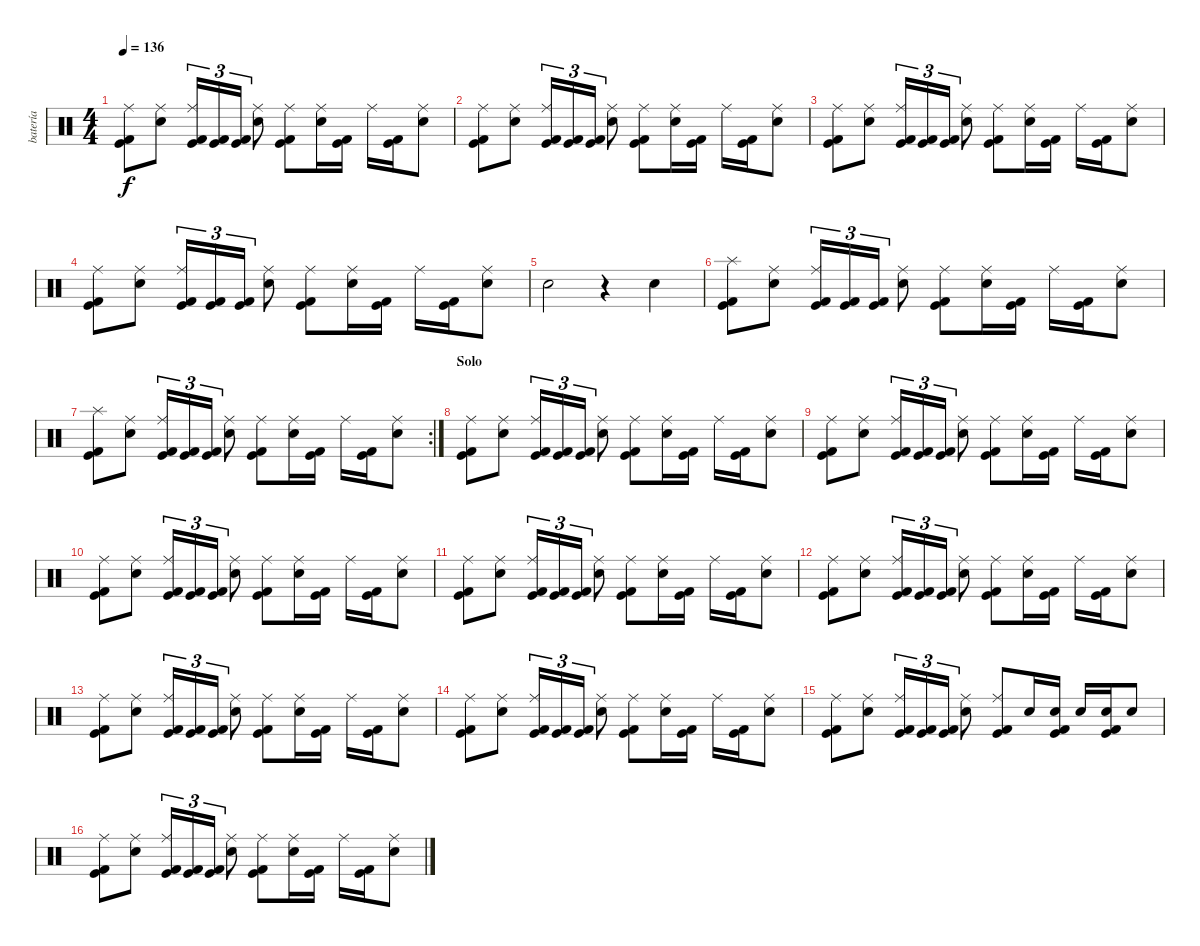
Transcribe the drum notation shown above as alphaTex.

\track ("batería" "batería") {instrument percussion}
\staff {score}
\articulation defaults
\ts (4 4)
\tempo 136
\clef neutral
\ks c
("Kick (hit) 2" "Ride (middle)" "Kick (hit)").8{dy f} ("Snare (hit) 2" "Ride (middle)").8 ("Kick (hit) 2" "Ride (middle)" "Kick (hit)").16{tu (3 2)} ("Kick (hit) 2" "Kick (hit)").16{tu (3 2)} ("Kick (hit) 2" "Kick (hit)").16{tu (3 2)} ("Snare (hit) 2" "Ride (middle)").8 ("Kick (hit) 2" "Ride (middle)" "Kick (hit)").8 ("Snare (hit) 2" "Ride (middle)").16 ("Kick (hit) 2" "Kick (hit)").16 "Ride (middle)".16 ("Kick (hit) 2" "Kick (hit)").16 ("Snare (hit) 2" "Ride (middle)").8 |
("Kick (hit) 2" "Ride (middle)" "Kick (hit)").8 ("Snare (hit) 2" "Ride (middle)").8 ("Kick (hit) 2" "Ride (middle)" "Kick (hit)").16{tu (3 2)} ("Kick (hit) 2" "Kick (hit)").16{tu (3 2)} ("Kick (hit) 2" "Kick (hit)").16{tu (3 2)} ("Snare (hit) 2" "Ride (middle)").8 ("Kick (hit) 2" "Ride (middle)" "Kick (hit)").8 ("Snare (hit) 2" "Ride (middle)").16 ("Kick (hit) 2" "Kick (hit)").16 "Ride (middle)".16 ("Kick (hit) 2" "Kick (hit)").16 ("Snare (hit) 2" "Ride (middle)").8 |
("Kick (hit) 2" "Ride (middle)" "Kick (hit)").8 ("Snare (hit) 2" "Ride (middle)").8 ("Kick (hit) 2" "Ride (middle)" "Kick (hit)").16{tu (3 2)} ("Kick (hit) 2" "Kick (hit)").16{tu (3 2)} ("Kick (hit) 2" "Kick (hit)").16{tu (3 2)} ("Snare (hit) 2" "Ride (middle)").8 ("Kick (hit) 2" "Ride (middle)" "Kick (hit)").8 ("Snare (hit) 2" "Ride (middle)").16 ("Kick (hit) 2" "Kick (hit)").16 "Ride (middle)".16 ("Kick (hit) 2" "Kick (hit)").16 ("Snare (hit) 2" "Ride (middle)").8 |
("Kick (hit) 2" "Ride (middle)" "Kick (hit)").8 ("Snare (hit) 2" "Ride (middle)").8 ("Kick (hit) 2" "Ride (middle)" "Kick (hit)").16{tu (3 2)} ("Kick (hit) 2" "Kick (hit)").16{tu (3 2)} ("Kick (hit) 2" "Kick (hit)").16{tu (3 2)} ("Snare (hit) 2" "Ride (middle)").8 ("Kick (hit) 2" "Ride (middle)" "Kick (hit)").8 ("Snare (hit) 2" "Ride (middle)").16 ("Kick (hit) 2" "Kick (hit)").16 "Ride (middle)".16 ("Kick (hit) 2" "Kick (hit)").16 ("Snare (hit) 2" "Ride (middle)").8 |
"Snare (hit) 2".2 r.4 "Snare (hit) 2".4 |
("Kick (hit) 2" "Splash (hit)" "Kick (hit)").8 ("Snare (hit) 2" "Ride (middle)").8 ("Kick (hit) 2" "Ride (middle)" "Kick (hit)").16{tu (3 2)} ("Kick (hit) 2" "Kick (hit)").16{tu (3 2)} ("Kick (hit) 2" "Kick (hit)").16{tu (3 2)} ("Snare (hit) 2" "Ride (middle)").8 ("Kick (hit) 2" "Ride (middle)" "Kick (hit)").8 ("Snare (hit) 2" "Ride (middle)").16 ("Kick (hit) 2" "Kick (hit)").16 "Ride (middle)".16 ("Kick (hit) 2" "Kick (hit)").16 ("Snare (hit) 2" "Ride (middle)").8 |
\rc 2
("Kick (hit) 2" "Splash (hit)" "Kick (hit)").8 ("Snare (hit) 2" "Ride (middle)").8 ("Kick (hit) 2" "Ride (middle)" "Kick (hit)").16{tu (3 2)} ("Kick (hit) 2" "Kick (hit)").16{tu (3 2)} ("Kick (hit) 2" "Kick (hit)").16{tu (3 2)} ("Snare (hit) 2" "Ride (middle)").8 ("Kick (hit) 2" "Ride (middle)" "Kick (hit)").8 ("Snare (hit) 2" "Ride (middle)").16 ("Kick (hit) 2" "Kick (hit)").16 "Ride (middle)".16 ("Kick (hit) 2" "Kick (hit)").16 ("Snare (hit) 2" "Ride (middle)").8 |
\section ("" "Solo")
("Kick (hit) 2" "Ride (middle)" "Kick (hit)").8 ("Snare (hit) 2" "Ride (middle)").8 ("Kick (hit) 2" "Ride (middle)" "Kick (hit)").16{tu (3 2)} ("Kick (hit) 2" "Kick (hit)").16{tu (3 2)} ("Kick (hit) 2" "Kick (hit)").16{tu (3 2)} ("Snare (hit) 2" "Ride (middle)").8 ("Kick (hit) 2" "Ride (middle)" "Kick (hit)").8 ("Snare (hit) 2" "Ride (middle)").16 ("Kick (hit) 2" "Kick (hit)").16 "Ride (middle)".16 ("Kick (hit) 2" "Kick (hit)").16 ("Snare (hit) 2" "Ride (middle)").8 |
("Kick (hit) 2" "Ride (middle)" "Kick (hit)").8 ("Snare (hit) 2" "Ride (middle)").8 ("Kick (hit) 2" "Ride (middle)" "Kick (hit)").16{tu (3 2)} ("Kick (hit) 2" "Kick (hit)").16{tu (3 2)} ("Kick (hit) 2" "Kick (hit)").16{tu (3 2)} ("Snare (hit) 2" "Ride (middle)").8 ("Kick (hit) 2" "Ride (middle)" "Kick (hit)").8 ("Snare (hit) 2" "Ride (middle)").16 ("Kick (hit) 2" "Kick (hit)").16 "Ride (middle)".16 ("Kick (hit) 2" "Kick (hit)").16 ("Snare (hit) 2" "Ride (middle)").8 |
("Kick (hit) 2" "Ride (middle)" "Kick (hit)").8 ("Snare (hit) 2" "Ride (middle)").8 ("Kick (hit) 2" "Ride (middle)" "Kick (hit)").16{tu (3 2)} ("Kick (hit) 2" "Kick (hit)").16{tu (3 2)} ("Kick (hit) 2" "Kick (hit)").16{tu (3 2)} ("Snare (hit) 2" "Ride (middle)").8 ("Kick (hit) 2" "Ride (middle)" "Kick (hit)").8 ("Snare (hit) 2" "Ride (middle)").16 ("Kick (hit) 2" "Kick (hit)").16 "Ride (middle)".16 ("Kick (hit) 2" "Kick (hit)").16 ("Snare (hit) 2" "Ride (middle)").8 |
("Kick (hit) 2" "Ride (middle)" "Kick (hit)").8 ("Snare (hit) 2" "Ride (middle)").8 ("Kick (hit) 2" "Ride (middle)" "Kick (hit)").16{tu (3 2)} ("Kick (hit) 2" "Kick (hit)").16{tu (3 2)} ("Kick (hit) 2" "Kick (hit)").16{tu (3 2)} ("Snare (hit) 2" "Ride (middle)").8 ("Kick (hit) 2" "Ride (middle)" "Kick (hit)").8 ("Snare (hit) 2" "Ride (middle)").16 ("Kick (hit) 2" "Kick (hit)").16 "Ride (middle)".16 ("Kick (hit) 2" "Kick (hit)").16 ("Snare (hit) 2" "Ride (middle)").8 |
\section ("" "")
("Kick (hit) 2" "Ride (middle)" "Kick (hit)").8 ("Snare (hit) 2" "Ride (middle)").8 ("Kick (hit) 2" "Ride (middle)" "Kick (hit)").16{tu (3 2)} ("Kick (hit) 2" "Kick (hit)").16{tu (3 2)} ("Kick (hit) 2" "Kick (hit)").16{tu (3 2)} ("Snare (hit) 2" "Ride (middle)").8 ("Kick (hit) 2" "Ride (middle)" "Kick (hit)").8 ("Snare (hit) 2" "Ride (middle)").16 ("Kick (hit) 2" "Kick (hit)").16 "Ride (middle)".16 ("Kick (hit) 2" "Kick (hit)").16 ("Snare (hit) 2" "Ride (middle)").8 |
("Kick (hit) 2" "Ride (middle)" "Kick (hit)").8 ("Snare (hit) 2" "Ride (middle)").8 ("Kick (hit) 2" "Ride (middle)" "Kick (hit)").16{tu (3 2)} ("Kick (hit) 2" "Kick (hit)").16{tu (3 2)} ("Kick (hit) 2" "Kick (hit)").16{tu (3 2)} ("Snare (hit) 2" "Ride (middle)").8 ("Kick (hit) 2" "Ride (middle)" "Kick (hit)").8 ("Snare (hit) 2" "Ride (middle)").16 ("Kick (hit) 2" "Kick (hit)").16 "Ride (middle)".16 ("Kick (hit) 2" "Kick (hit)").16 ("Snare (hit) 2" "Ride (middle)").8 |
("Kick (hit) 2" "Ride (middle)" "Kick (hit)").8 ("Snare (hit) 2" "Ride (middle)").8 ("Kick (hit) 2" "Ride (middle)" "Kick (hit)").16{tu (3 2)} ("Kick (hit) 2" "Kick (hit)").16{tu (3 2)} ("Kick (hit) 2" "Kick (hit)").16{tu (3 2)} ("Snare (hit) 2" "Ride (middle)").8 ("Kick (hit) 2" "Ride (middle)" "Kick (hit)").8 ("Snare (hit) 2" "Ride (middle)").16 ("Kick (hit) 2" "Kick (hit)").16 "Ride (middle)".16 ("Kick (hit) 2" "Kick (hit)").16 ("Snare (hit) 2" "Ride (middle)").8 |
("Kick (hit) 2" "Ride (middle)" "Kick (hit)").8 ("Snare (hit) 2" "Ride (middle)").8 ("Kick (hit) 2" "Ride (middle)" "Kick (hit)").16{tu (3 2)} ("Kick (hit) 2" "Kick (hit)").16{tu (3 2)} ("Kick (hit) 2" "Kick (hit)").16{tu (3 2)} ("Snare (hit) 2" "Ride (middle)").8 ("Kick (hit) 2" "Ride (middle)" "Kick (hit)").8 "Snare (hit) 2".16 ("Kick (hit) 2" "Snare (hit) 2" "Kick (hit)").16 "Snare (hit) 2".16 ("Kick (hit) 2" "Snare (hit) 2" "Kick (hit)").16 "Snare (hit) 2".8 |
\section ("" "")
("Kick (hit) 2" "Ride (middle)" "Kick (hit)").8 ("Snare (hit) 2" "Ride (middle)").8 ("Kick (hit) 2" "Ride (middle)" "Kick (hit)").16{tu (3 2)} ("Kick (hit) 2" "Kick (hit)").16{tu (3 2)} ("Kick (hit) 2" "Kick (hit)").16{tu (3 2)} ("Snare (hit) 2" "Ride (middle)").8 ("Kick (hit) 2" "Ride (middle)" "Kick (hit)").8 ("Snare (hit) 2" "Ride (middle)").16 ("Kick (hit) 2" "Kick (hit)").16 "Ride (middle)".16 ("Kick (hit) 2" "Kick (hit)").16 ("Snare (hit) 2" "Ride (middle)").8
